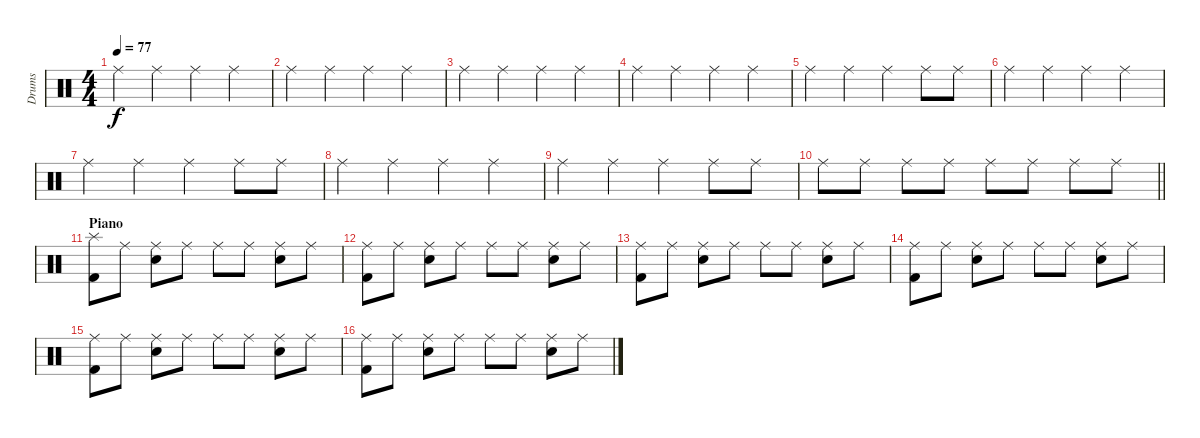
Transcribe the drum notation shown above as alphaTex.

\track ("Drums" "Drums") {instrument percussion}
\staff {score}
\articulation defaults
\ts (4 4)
\tempo 77
\clef neutral
\ks c "Ride (middle)".4{dy f} "Ride (middle)".4 "Ride (middle)".4 "Ride (middle)".4
|
"Ride (middle)".4 "Ride (middle)".4 "Ride (middle)".4 "Ride (middle)".4 |
"Ride (middle)".4 "Ride (middle)".4 "Ride (middle)".4 "Ride (middle)".4 |
"Ride (middle)".4 "Ride (middle)".4 "Ride (middle)".4 "Ride (middle)".4 |
"Ride (middle)".4 "Ride (middle)".4 "Ride (middle)".4 "Ride (middle)".8 "Ride (middle)".8 |
"Ride (middle)".4 "Ride (middle)".4 "Ride (middle)".4 "Ride (middle)".4 |
"Ride (middle)".4 "Ride (middle)".4 "Ride (middle)".4 "Ride (middle)".8 "Ride (middle)".8 |
"Ride (middle)".4 "Ride (middle)".4 "Ride (middle)".4 "Ride (middle)".4 |
"Ride (middle)".4 "Ride (middle)".4 "Ride (middle)".4 "Ride (middle)".8 "Ride (middle)".8 |
\barLineRight lightlight "Ride (middle)".8 "Ride (middle)".8 "Ride (middle)".8 "Ride (middle)".8 "Ride (middle)".8 "Ride (middle)".8 "Ride (middle)".8 "Ride (middle)".8
|
\section ("" "Piano")
("Splash (hit)" "Kick (hit) 2").8 "Ride (middle)".8 ("Ride (middle)" "Snare (hit) 2").8 "Ride (middle)".8 "Ride (middle)".8 "Ride (middle)".8 ("Ride (middle)" "Snare (hit) 2").8 "Ride (middle)".8 |
("Ride (middle)" "Kick (hit) 2").8 "Ride (middle)".8 ("Ride (middle)" "Snare (hit) 2").8 "Ride (middle)".8 "Ride (middle)".8 "Ride (middle)".8 ("Ride (middle)" "Snare (hit) 2").8 "Ride (middle)".8 |
("Ride (middle)" "Kick (hit) 2").8 "Ride (middle)".8 ("Ride (middle)" "Snare (hit) 2").8 "Ride (middle)".8 "Ride (middle)".8 "Ride (middle)".8 ("Ride (middle)" "Snare (hit) 2").8 "Ride (middle)".8 |
("Ride (middle)" "Kick (hit) 2").8 "Ride (middle)".8 ("Ride (middle)" "Snare (hit) 2").8 "Ride (middle)".8 "Ride (middle)".8 "Ride (middle)".8 ("Ride (middle)" "Snare (hit) 2").8 "Ride (middle)".8 |
("Ride (middle)" "Kick (hit) 2").8 "Ride (middle)".8 ("Ride (middle)" "Snare (hit) 2").8 "Ride (middle)".8 "Ride (middle)".8 "Ride (middle)".8 ("Ride (middle)" "Snare (hit) 2").8 "Ride (middle)".8 |
("Ride (middle)" "Kick (hit) 2").8 "Ride (middle)".8 ("Ride (middle)" "Snare (hit) 2").8 "Ride (middle)".8 "Ride (middle)".8 "Ride (middle)".8 ("Ride (middle)" "Snare (hit) 2").8 "Ride (middle)".8
